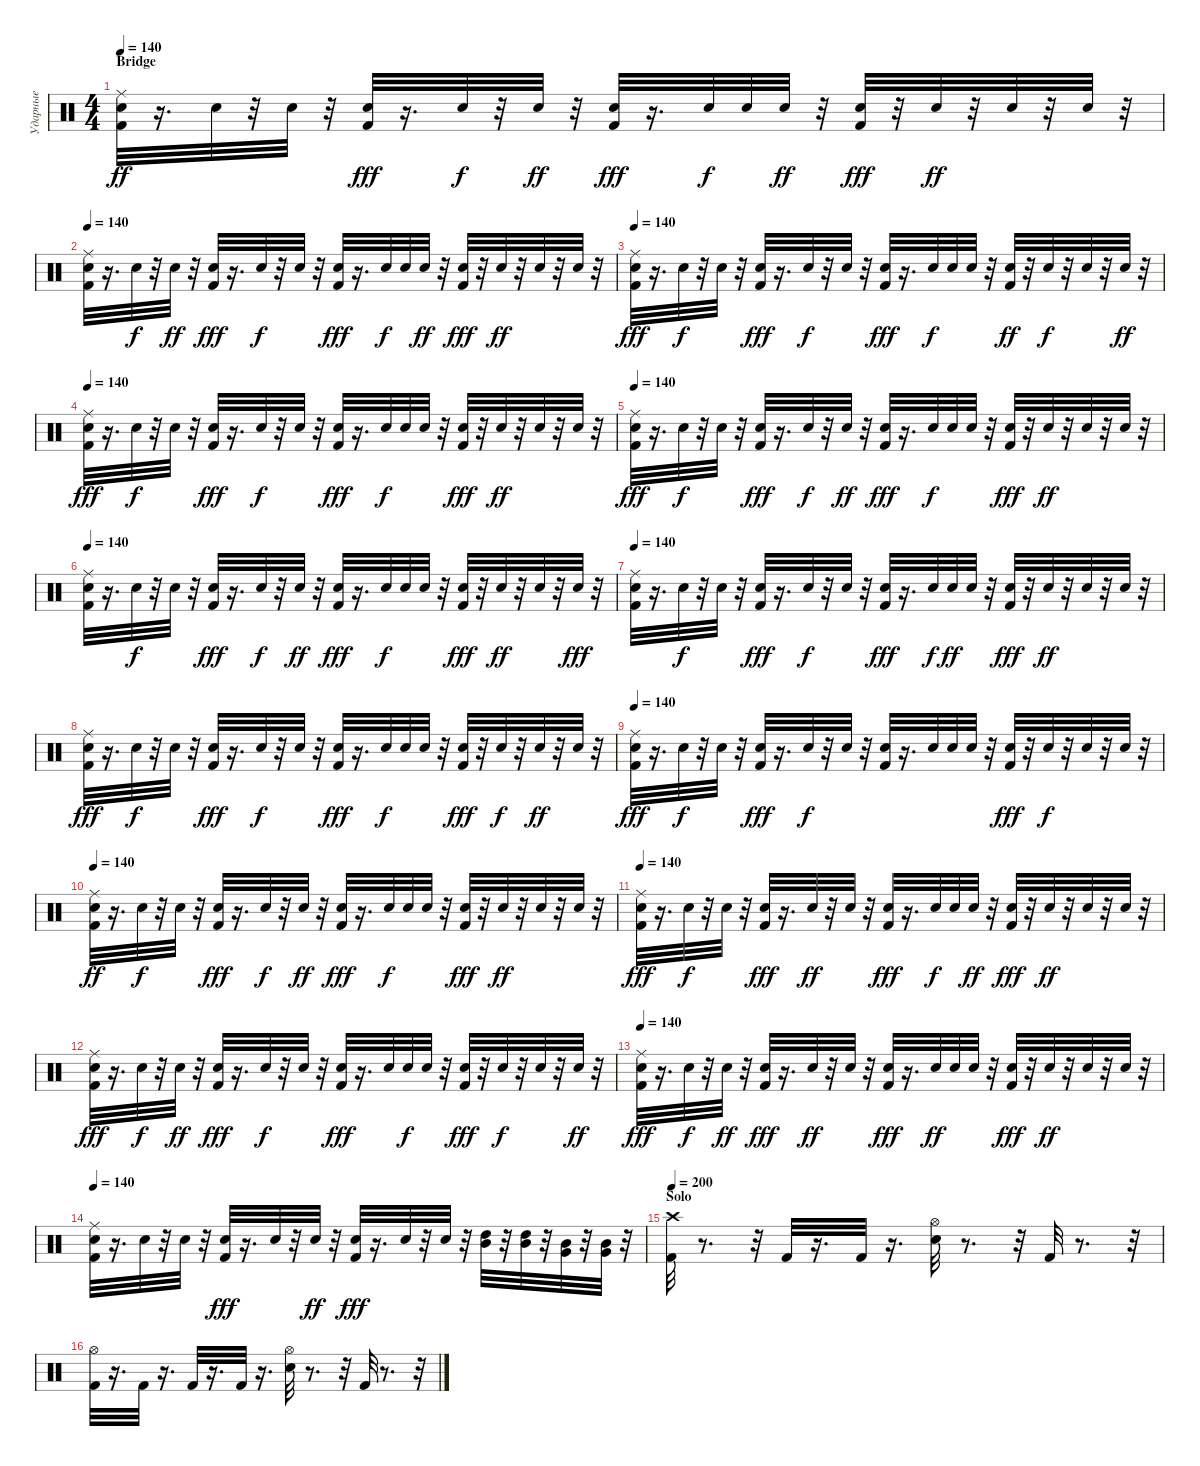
\track ("Ударные" "Ударные") {instrument percussion}
\staff {score}
\articulation defaults
\ts (4 4)
\section ("" "Bridge ")
\tempo 140
\clef neutral
\ks c
("Ride (middle)" "Snare (hit) 2" "Kick (hit) 2").32{dy ff} r.16{d} "Snare (hit) 2".32 r.32 "Snare (hit) 2".32 r.32 ("Kick (hit) 2" "Snare (hit) 2").32{dy fff} r.16{d} "Snare (hit) 2".32{dy f} r.32 "Snare (hit) 2".32{dy ff} r.32 ("Kick (hit) 2" "Snare (hit) 2").32{dy fff} r.16{d} "Snare (hit) 2".32{dy f} "Snare (hit) 2".32 "Snare (hit) 2".32{dy ff} r.32 ("Kick (hit) 2" "Snare (hit) 2").32{dy fff} r.32 "Snare (hit) 2".32{dy ff} r.32 "Snare (hit) 2".32 r.32 "Snare (hit) 2".32 r.32 |
\tempo 140
("Kick (hit) 2" "Snare (hit) 2" "Ride (middle)").32 r.16{d} "Snare (hit) 2".32{dy f} r.32 "Snare (hit) 2".32{dy ff} r.32 ("Kick (hit) 2" "Snare (hit) 2").32{dy fff} r.16{d} "Snare (hit) 2".32{dy f} r.32 "Snare (hit) 2".32 r.32 ("Kick (hit) 2" "Snare (hit) 2").32{dy fff} r.16{d} "Snare (hit) 2".32{dy f} "Snare (hit) 2".32 "Snare (hit) 2".32{dy ff} r.32 ("Kick (hit) 2" "Snare (hit) 2").32{dy fff} r.32 "Snare (hit) 2".32{dy ff} r.32 "Snare (hit) 2".32 r.32 "Snare (hit) 2".32 r.32 |
\tempo 140
("Ride (middle)" "Kick (hit) 2" "Snare (hit) 2").32{dy fff} r.16{d} "Snare (hit) 2".32{dy f} r.32 "Snare (hit) 2".32 r.32 ("Kick (hit) 2" "Snare (hit) 2").32{dy fff} r.16{d} "Snare (hit) 2".32{dy f} r.32 "Snare (hit) 2".32 r.32 ("Kick (hit) 2" "Snare (hit) 2").32{dy fff} r.16{d} "Snare (hit) 2".32{dy f} "Snare (hit) 2".32 "Snare (hit) 2".32 r.32 ("Kick (hit) 2" "Snare (hit) 2").32{dy ff} r.32 "Snare (hit) 2".32{dy f} r.32 "Snare (hit) 2".32 r.32 "Snare (hit) 2".32{dy ff} r.32 |
\tempo 140
("Ride (middle)" "Kick (hit) 2" "Snare (hit) 2").32{dy fff} r.16{d} "Snare (hit) 2".32{dy f} r.32 "Snare (hit) 2".32 r.32 ("Kick (hit) 2" "Snare (hit) 2").32{dy fff} r.16{d} "Snare (hit) 2".32{dy f} r.32 "Snare (hit) 2".32 r.32 ("Kick (hit) 2" "Snare (hit) 2").32{dy fff} r.16{d} "Snare (hit) 2".32{dy f} "Snare (hit) 2".32 "Snare (hit) 2".32 r.32 ("Kick (hit) 2" "Snare (hit) 2").32{dy fff} r.32 "Snare (hit) 2".32{dy ff} r.32 "Snare (hit) 2".32 r.32 "Snare (hit) 2".32 r.32 |
\tempo 140
("Ride (middle)" "Snare (hit) 2" "Kick (hit) 2").32{dy fff} r.16{d} "Snare (hit) 2".32{dy f} r.32 "Snare (hit) 2".32 r.32 ("Kick (hit) 2" "Snare (hit) 2").32{dy fff} r.16{d} "Snare (hit) 2".32{dy f} r.32 "Snare (hit) 2".32{dy ff} r.32 ("Kick (hit) 2" "Snare (hit) 2").32{dy fff} r.16{d} "Snare (hit) 2".32{dy f} "Snare (hit) 2".32 "Snare (hit) 2".32 r.32 ("Kick (hit) 2" "Snare (hit) 2").32{dy fff} r.32 "Snare (hit) 2".32{dy ff} r.32 "Snare (hit) 2".32 r.32 "Snare (hit) 2".32 r.32 |
\tempo 140
("Kick (hit) 2" "Snare (hit) 2" "Ride (middle)").32 r.16{d} "Snare (hit) 2".32{dy f} r.32 "Snare (hit) 2".32 r.32 ("Kick (hit) 2" "Snare (hit) 2").32{dy fff} r.16{d} "Snare (hit) 2".32{dy f} r.32 "Snare (hit) 2".32{dy ff} r.32 ("Kick (hit) 2" "Snare (hit) 2").32{dy fff} r.16{d} "Snare (hit) 2".32{dy f} "Snare (hit) 2".32 "Snare (hit) 2".32 r.32 ("Kick (hit) 2" "Snare (hit) 2").32{dy fff} r.32 "Snare (hit) 2".32{dy ff} r.32 "Snare (hit) 2".32 r.32 "Snare (hit) 2".32{dy fff} r.32 |
\tempo 140
("Ride (middle)" "Kick (hit) 2" "Snare (hit) 2").32 r.16{d} "Snare (hit) 2".32{dy f} r.32 "Snare (hit) 2".32 r.32 ("Kick (hit) 2" "Snare (hit) 2").32{dy fff} r.16{d} "Snare (hit) 2".32{dy f} r.32 "Snare (hit) 2".32 r.32 ("Kick (hit) 2" "Snare (hit) 2").32{dy fff} r.16{d} "Snare (hit) 2".32{dy f} "Snare (hit) 2".32{dy ff} "Snare (hit) 2".32 r.32 ("Kick (hit) 2" "Snare (hit) 2").32{dy fff} r.32 "Snare (hit) 2".32{dy ff} r.32 "Snare (hit) 2".32 r.32 "Snare (hit) 2".32 r.32 |
("Ride (middle)" "Kick (hit) 2" "Snare (hit) 2").32{dy fff} r.16{d} "Snare (hit) 2".32{dy f} r.32 "Snare (hit) 2".32 r.32 ("Kick (hit) 2" "Snare (hit) 2").32{dy fff} r.16{d} "Snare (hit) 2".32{dy f} r.32 "Snare (hit) 2".32 r.32 ("Kick (hit) 2" "Snare (hit) 2").32{dy fff} r.16{d} "Snare (hit) 2".32{dy f} "Snare (hit) 2".32 "Snare (hit) 2".32 r.32 ("Kick (hit) 2" "Snare (hit) 2").32{dy fff} r.32 "Snare (hit) 2".32{dy f} r.32 "Snare (hit) 2".32{dy ff} r.32 "Snare (hit) 2".32 r.32 |
\tempo 140
("Ride (middle)" "Snare (hit) 2" "Kick (hit) 2").32{dy fff} r.16{d} "Snare (hit) 2".32{dy f} r.32 "Snare (hit) 2".32 r.32 ("Kick (hit) 2" "Snare (hit) 2").32{dy fff} r.16{d} "Snare (hit) 2".32{dy f} r.32 "Snare (hit) 2".32 r.32 ("Kick (hit) 2" "Snare (hit) 2").32 r.16{d} "Snare (hit) 2".32 "Snare (hit) 2".32 "Snare (hit) 2".32 r.32 ("Kick (hit) 2" "Snare (hit) 2").32{dy fff} r.32 "Snare (hit) 2".32{dy f} r.32 "Snare (hit) 2".32 r.32 "Snare (hit) 2".32 r.32 |
\tempo 140
("Kick (hit) 2" "Snare (hit) 2" "Ride (middle)").32{dy ff} r.16{d} "Snare (hit) 2".32{dy f} r.32 "Snare (hit) 2".32 r.32 ("Kick (hit) 2" "Snare (hit) 2").32{dy fff} r.16{d} "Snare (hit) 2".32{dy f} r.32 "Snare (hit) 2".32{dy ff} r.32 ("Kick (hit) 2" "Snare (hit) 2").32{dy fff} r.16{d} "Snare (hit) 2".32{dy f} "Snare (hit) 2".32 "Snare (hit) 2".32 r.32 ("Kick (hit) 2" "Snare (hit) 2").32{dy fff} r.32 "Snare (hit) 2".32{dy ff} r.32 "Snare (hit) 2".32 r.32 "Snare (hit) 2".32 r.32 |
\tempo 140
("Ride (middle)" "Kick (hit) 2" "Snare (hit) 2").32{dy fff} r.16{d} "Snare (hit) 2".32{dy f} r.32 "Snare (hit) 2".32 r.32 ("Kick (hit) 2" "Snare (hit) 2").32{dy fff} r.16{d} "Snare (hit) 2".32{dy ff} r.32 "Snare (hit) 2".32 r.32 ("Kick (hit) 2" "Snare (hit) 2").32{dy fff} r.16{d} "Snare (hit) 2".32{dy f} "Snare (hit) 2".32 "Snare (hit) 2".32{dy ff} r.32 ("Kick (hit) 2" "Snare (hit) 2").32{dy fff} r.32 "Snare (hit) 2".32{dy ff} r.32 "Snare (hit) 2".32 r.32 "Snare (hit) 2".32 r.32 |
("Ride (middle)" "Kick (hit) 2" "Snare (hit) 2").32{dy fff} r.16{d} "Snare (hit) 2".32{dy f} r.32 "Snare (hit) 2".32{dy ff} r.32 ("Kick (hit) 2" "Snare (hit) 2").32{dy fff} r.16{d} "Snare (hit) 2".32{dy f} r.32 "Snare (hit) 2".32 r.32 ("Kick (hit) 2" "Snare (hit) 2").32{dy fff} r.16{d} "Snare (hit) 2".32 "Snare (hit) 2".32{dy f} "Snare (hit) 2".32 r.32 ("Kick (hit) 2" "Snare (hit) 2").32{dy fff} r.32 "Snare (hit) 2".32{dy f} r.32 "Snare (hit) 2".32 r.32 "Snare (hit) 2".32{dy ff} r.32 |
\tempo 140
("Ride (middle)" "Snare (hit) 2" "Kick (hit) 2").32{dy fff} r.16{d} "Snare (hit) 2".32{dy f} r.32 "Snare (hit) 2".32{dy ff} r.32 ("Kick (hit) 2" "Snare (hit) 2").32{dy fff} r.16{d} "Snare (hit) 2".32{dy ff} r.32 "Snare (hit) 2".32 r.32 ("Kick (hit) 2" "Snare (hit) 2").32{dy fff} r.16{d} "Snare (hit) 2".32{dy ff} "Snare (hit) 2".32 "Snare (hit) 2".32 r.32 ("Kick (hit) 2" "Snare (hit) 2").32{dy fff} r.32 "Snare (hit) 2".32{dy ff} r.32 "Snare (hit) 2".32 r.32 "Snare (hit) 2".32 r.32 |
\tempo 140
("Ride (middle)" "Kick (hit) 2" "Snare (hit) 2").32 r.16{d} "Snare (hit) 2".32 r.32 "Snare (hit) 2".32 r.32 ("Kick (hit) 2" "Snare (hit) 2").32{dy fff} r.16{d} "Snare (hit) 2".32 r.32 "Snare (hit) 2".32{dy ff} r.32 ("Snare (hit) 2" "Kick (hit) 2").32{dy fff} r.16{d} "Snare (hit) 2".32 r.32 "Snare (hit) 2".32 r.32 ("Mid Tom (hit)" "High Tom (hit)").32 r.32 ("Mid Tom (hit)" "High Tom (hit)").32 r.32 ("Mid Tom (hit)" "Very Low Tom (hit)").32 r.32 ("Mid Tom (hit)" "Very Low Tom (hit)").32 r.32 |
\section ("" "Solo")
\tempo 200
("Crash high (hit)" "Kick (hit) 2").32 r.8{d} r.32 "Kick (hit) 2".32 r.16{d} "Kick (hit) 2".32 r.16{d} ("Hi-Hat (open)" "Snare (hit) 2").32 r.8{d} r.32 "Kick (hit) 2".32 r.8{d} r.32 |
("Hi-Hat (open)" "Kick (hit) 2").32 r.16{d} "Kick (hit) 2".32 r.16{d} "Kick (hit) 2".32 r.16{d} "Kick (hit) 2".32 r.16{d} ("Hi-Hat (open)" "Snare (hit) 2").32 r.8{d} r.32 "Kick (hit) 2".32 r.8{d} r.32
